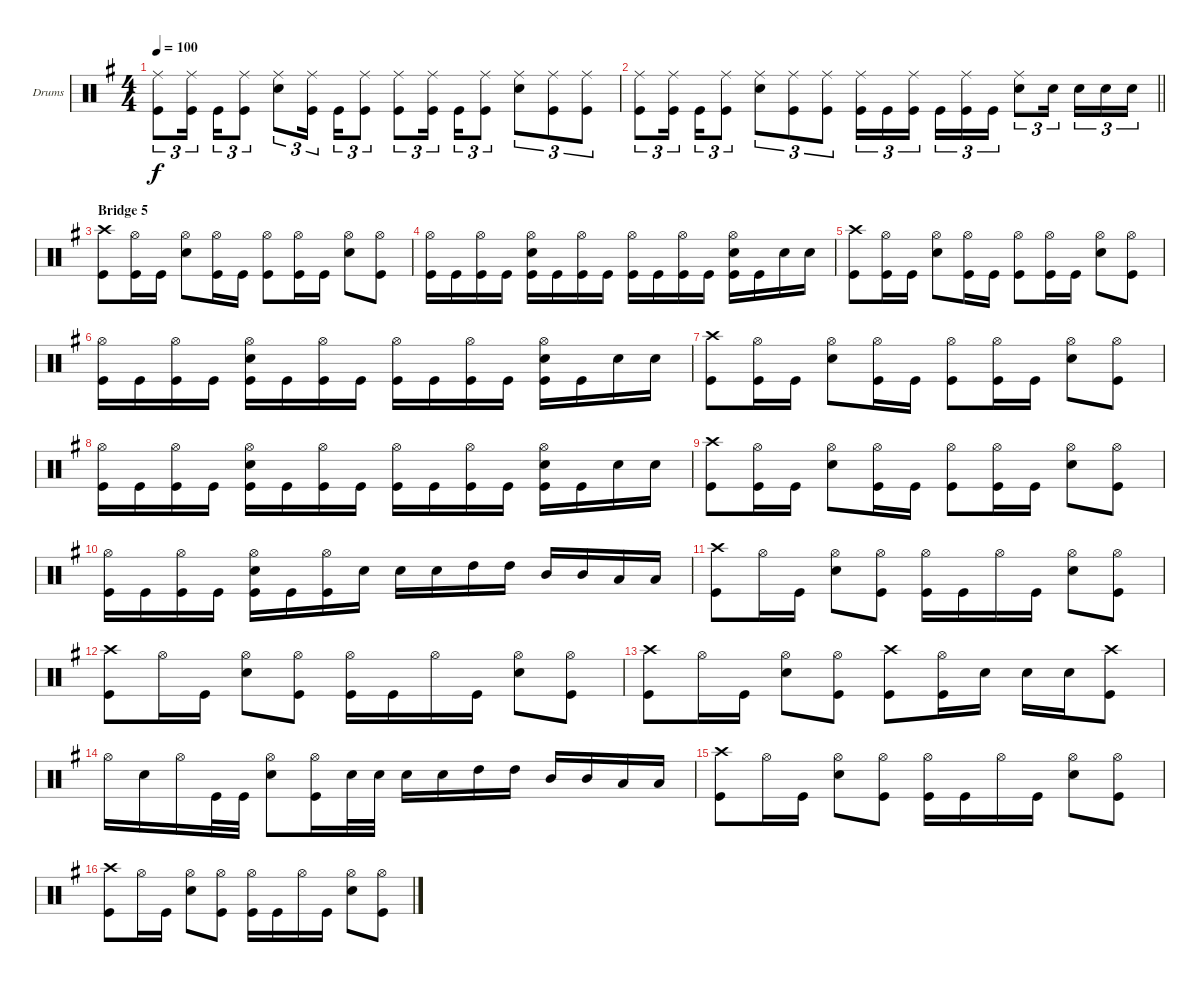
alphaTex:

\bracketExtendMode groupsimilarinstruments
\firstSystemTrackNameOrientation horizontal
\otherSystemsTrackNameOrientation horizontal
\track ("drums (Anton Zulganov)" "Drums") {instrument percussion}
\staff {score}
\articulation defaults
\ts (4 4)
\tempo 100
\clef neutral
\ks eminor
("Kick (hit)" "Ride (middle)").8{tu (3 2) dy f} ("Ride (middle)" "Kick (hit)").16{tu (3 2)} "Kick (hit)".16{tu (3 2)} ("Ride (middle)" "Kick (hit)").8{tu (3 2)} ("Snare (hit) 2" "Ride (middle)").8{tu (3 2)} ("Ride (middle)" "Kick (hit)").16{tu (3 2)} "Kick (hit)".16{tu (3 2)} ("Ride (middle)" "Kick (hit)").8{tu (3 2)} ("Kick (hit)" "Ride (middle)").8{tu (3 2)} ("Ride (middle)" "Kick (hit)").16{tu (3 2)} "Kick (hit)".16{tu (3 2)} ("Ride (middle)" "Kick (hit)").8{tu (3 2)} ("Snare (hit) 2" "Ride (middle)").8{tu (3 2)} ("Ride (middle)" "Kick (hit)").8{tu (3 2)} ("Kick (hit)" "Ride (middle)").8{tu (3 2)} |
\barLineRight lightlight
("Kick (hit)" "Ride (middle)").8{tu (3 2)} ("Ride (middle)" "Kick (hit)").16{tu (3 2)} "Kick (hit)".16{tu (3 2)} ("Ride (middle)" "Kick (hit)").8{tu (3 2)} ("Snare (hit) 2" "Ride (middle)").8{tu (3 2)} ("Ride (middle)" "Kick (hit)").8{tu (3 2)} ("Ride (middle)" "Kick (hit)").8{tu (3 2)} ("Kick (hit)" "Ride (middle)").16{tu (3 2)} "Kick (hit)".16{tu (3 2)} ("Ride (middle)" "Kick (hit)").16{tu (3 2)} "Kick (hit)".16{tu (3 2)} ("Ride (middle)" "Kick (hit)").16{tu (3 2)} "Kick (hit)".16{tu (3 2)} ("Snare (hit) 2" "Ride (middle)").8{tu (3 2)} "Snare (hit) 2".16{tu (3 2)} "Snare (hit) 2".16{tu (3 2)} "Snare (hit) 2".16{tu (3 2)} "Snare (hit) 2".16{tu (3 2)} |
\section ("" "Bridge 5")
("Kick (hit)" "Crash high (hit)").8 ("Hi-Hat (open)" "Kick (hit)").16 "Kick (hit)".16 ("Hi-Hat (open)" "Snare (hit) 2").8 ("Hi-Hat (open)" "Kick (hit)").16 "Kick (hit)".16 ("Hi-Hat (open)" "Kick (hit)").8 ("Hi-Hat (open)" "Kick (hit)").16 "Kick (hit)".16 ("Hi-Hat (open)" "Snare (hit) 2").8 ("Kick (hit)" "Hi-Hat (open)").8 |
("Hi-Hat (open)" "Kick (hit)").16 "Kick (hit)".16 ("Kick (hit)" "Hi-Hat (open)").16 "Kick (hit)".16 ("Hi-Hat (open)" "Kick (hit)" "Snare (hit) 2").16 "Kick (hit)".16 ("Hi-Hat (open)" "Kick (hit)").16 "Kick (hit)".16 ("Hi-Hat (open)" "Kick (hit)").16 "Kick (hit)".16 ("Hi-Hat (open)" "Kick (hit)").16 "Kick (hit)".16 ("Kick (hit)" "Snare (hit) 2" "Hi-Hat (open)").16 "Kick (hit)".16 "Snare (hit) 2".16 "Snare (hit) 2".16 |
("Kick (hit)" "Crash high (hit)").8 ("Hi-Hat (open)" "Kick (hit)").16 "Kick (hit)".16 ("Hi-Hat (open)" "Snare (hit) 2").8 ("Hi-Hat (open)" "Kick (hit)").16 "Kick (hit)".16 ("Hi-Hat (open)" "Kick (hit)").8 ("Hi-Hat (open)" "Kick (hit)").16 "Kick (hit)".16 ("Hi-Hat (open)" "Snare (hit) 2").8 ("Kick (hit)" "Hi-Hat (open)").8 |
("Hi-Hat (open)" "Kick (hit)").16 "Kick (hit)".16 ("Kick (hit)" "Hi-Hat (open)").16 "Kick (hit)".16 ("Hi-Hat (open)" "Kick (hit)" "Snare (hit) 2").16 "Kick (hit)".16 ("Hi-Hat (open)" "Kick (hit)").16 "Kick (hit)".16 ("Hi-Hat (open)" "Kick (hit)").16 "Kick (hit)".16 ("Hi-Hat (open)" "Kick (hit)").16 "Kick (hit)".16 ("Kick (hit)" "Snare (hit) 2" "Hi-Hat (open)").16 "Kick (hit)".16 "Snare (hit) 2".16 "Snare (hit) 2".16 |
("Kick (hit)" "Crash high (hit)").8 ("Hi-Hat (open)" "Kick (hit)").16 "Kick (hit)".16 ("Hi-Hat (open)" "Snare (hit) 2").8 ("Hi-Hat (open)" "Kick (hit)").16 "Kick (hit)".16 ("Hi-Hat (open)" "Kick (hit)").8 ("Hi-Hat (open)" "Kick (hit)").16 "Kick (hit)".16 ("Hi-Hat (open)" "Snare (hit) 2").8 ("Kick (hit)" "Hi-Hat (open)").8 |
("Hi-Hat (open)" "Kick (hit)").16 "Kick (hit)".16 ("Kick (hit)" "Hi-Hat (open)").16 "Kick (hit)".16 ("Hi-Hat (open)" "Kick (hit)" "Snare (hit) 2").16 "Kick (hit)".16 ("Hi-Hat (open)" "Kick (hit)").16 "Kick (hit)".16 ("Hi-Hat (open)" "Kick (hit)").16 "Kick (hit)".16 ("Hi-Hat (open)" "Kick (hit)").16 "Kick (hit)".16 ("Kick (hit)" "Snare (hit) 2" "Hi-Hat (open)").16 "Kick (hit)".16 "Snare (hit) 2".16 "Snare (hit) 2".16 |
("Kick (hit)" "Crash high (hit)").8 ("Hi-Hat (open)" "Kick (hit)").16 "Kick (hit)".16 ("Hi-Hat (open)" "Snare (hit) 2").8 ("Hi-Hat (open)" "Kick (hit)").16 "Kick (hit)".16 ("Hi-Hat (open)" "Kick (hit)").8 ("Hi-Hat (open)" "Kick (hit)").16 "Kick (hit)".16 ("Hi-Hat (open)" "Snare (hit) 2").8 ("Kick (hit)" "Hi-Hat (open)").8 |
("Hi-Hat (open)" "Kick (hit)").16 "Kick (hit)".16 ("Kick (hit)" "Hi-Hat (open)").16 "Kick (hit)".16 ("Hi-Hat (open)" "Kick (hit)" "Snare (hit) 2").16 "Kick (hit)".16 ("Hi-Hat (open)" "Kick (hit)").16 "Snare (hit) 2".16 "Snare (hit) 2".16 "Snare (hit) 2".16 "High Tom (hit)".16 "High Tom (hit)".16 "Mid Tom (hit)".16 "Mid Tom (hit)".16 "Low Tom (hit)".16 "Low Tom (hit)".16 |
("Kick (hit)" "Crash high (hit)").8 "Hi-Hat (open)".16 "Kick (hit)".16 ("Hi-Hat (open)" "Snare (hit) 2").8 ("Hi-Hat (open)" "Kick (hit)").8 ("Hi-Hat (open)" "Kick (hit)").16 "Kick (hit)".16 "Hi-Hat (open)".16 "Kick (hit)".16 ("Hi-Hat (open)" "Snare (hit) 2").8 ("Kick (hit)" "Hi-Hat (open)").8 |
("Kick (hit)" "Crash high (hit)").8 "Hi-Hat (open)".16 "Kick (hit)".16 ("Hi-Hat (open)" "Snare (hit) 2").8 ("Hi-Hat (open)" "Kick (hit)").8 ("Hi-Hat (open)" "Kick (hit)").16 "Kick (hit)".16 "Hi-Hat (open)".16 "Kick (hit)".16 ("Hi-Hat (open)" "Snare (hit) 2").8 ("Kick (hit)" "Hi-Hat (open)").8 |
("Kick (hit)" "Crash high (hit)").8 "Hi-Hat (open)".16 "Kick (hit)".16 ("Hi-Hat (open)" "Snare (hit) 2").8 ("Hi-Hat (open)" "Kick (hit)").8 ("Kick (hit)" "Crash high (hit)").8 ("Hi-Hat (open)" "Kick (hit)").16 "Snare (hit) 2".16 "Snare (hit) 2".16 "Snare (hit) 2".16 ("Kick (hit)" "Crash high (hit)").8 |
"Hi-Hat (open)".16 "Snare (hit) 2".16 "Hi-Hat (open)".16 "Kick (hit)".32 "Kick (hit)".32 ("Snare (hit) 2" "Hi-Hat (open)").8 ("Hi-Hat (open)" "Kick (hit)").16 "Snare (hit) 2".32 "Snare (hit) 2".32 "Snare (hit) 2".16 "Snare (hit) 2".16 "High Tom (hit)".16 "High Tom (hit)".16 "Mid Tom (hit)".16 "Mid Tom (hit)".16 "Low Tom (hit)".16 "Low Tom (hit)".16 |
("Kick (hit)" "Crash high (hit)").8 "Hi-Hat (open)".16 "Kick (hit)".16 ("Hi-Hat (open)" "Snare (hit) 2").8 ("Hi-Hat (open)" "Kick (hit)").8 ("Hi-Hat (open)" "Kick (hit)").16 "Kick (hit)".16 "Hi-Hat (open)".16 "Kick (hit)".16 ("Hi-Hat (open)" "Snare (hit) 2").8 ("Kick (hit)" "Hi-Hat (open)").8 |
("Kick (hit)" "Crash high (hit)").8 "Hi-Hat (open)".16 "Kick (hit)".16 ("Hi-Hat (open)" "Snare (hit) 2").8 ("Hi-Hat (open)" "Kick (hit)").8 ("Hi-Hat (open)" "Kick (hit)").16 "Kick (hit)".16 "Hi-Hat (open)".16 "Kick (hit)".16 ("Hi-Hat (open)" "Snare (hit) 2").8 ("Kick (hit)" "Hi-Hat (open)").8
